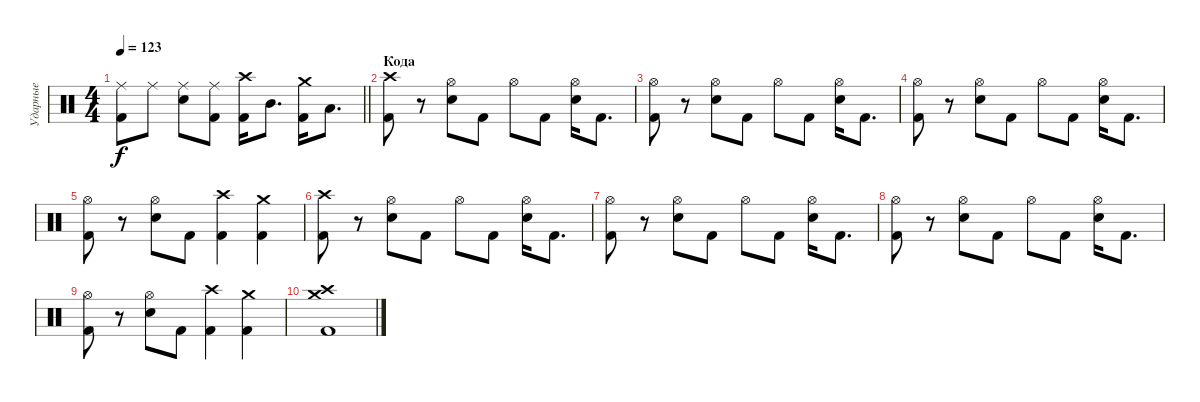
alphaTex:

\track ("Ударные" "Ударные") {instrument percussion}
\staff {score}
\articulation defaults
\ts (4 4)
\tempo 123
\clef neutral
\barLineRight lightlight
\ks c
("Ride (middle)" "Kick (hit) 2").8{dy f} "Ride (middle)".8 ("Ride (middle)" "Electric Snare (hit)").8 ("Ride (middle)" "Kick (hit) 2").8 ("Kick (hit) 2" "Crash high (hit)").16 "Mid Tom (hit)".8{d} ("Kick (hit) 2" "Crash medium (hit)").16 "Low Tom (hit)".8{d} |
\section ("" "Кода")
("Crash high (hit)" "Kick (hit) 2").8 r.8 ("Hi-Hat (open)" "Electric Snare (hit)").8 "Kick (hit) 2".8 "Hi-Hat (open)".8 "Kick (hit) 2".8 ("Hi-Hat (open)" "Electric Snare (hit)").16 "Kick (hit) 2".8{d} |
("Hi-Hat (open)" "Kick (hit) 2").8 r.8 ("Hi-Hat (open)" "Electric Snare (hit)").8 "Kick (hit) 2".8 "Hi-Hat (open)".8 "Kick (hit) 2".8 ("Hi-Hat (open)" "Electric Snare (hit)").16 "Kick (hit) 2".8{d} |
("Hi-Hat (open)" "Kick (hit) 2").8 r.8 ("Hi-Hat (open)" "Electric Snare (hit)").8 "Kick (hit) 2".8 "Hi-Hat (open)".8 "Kick (hit) 2".8 ("Hi-Hat (open)" "Electric Snare (hit)").16 "Kick (hit) 2".8{d} |
("Hi-Hat (open)" "Kick (hit) 2").8 r.8 ("Hi-Hat (open)" "Electric Snare (hit)").8 "Kick (hit) 2".8 ("Kick (hit) 2" "Crash high (hit)").4 ("Kick (hit) 2" "Crash medium (hit)").4 |
("Crash high (hit)" "Kick (hit) 2").8 r.8 ("Hi-Hat (open)" "Electric Snare (hit)").8 "Kick (hit) 2".8 "Hi-Hat (open)".8 "Kick (hit) 2".8 ("Hi-Hat (open)" "Electric Snare (hit)").16 "Kick (hit) 2".8{d} |
("Hi-Hat (open)" "Kick (hit) 2").8 r.8 ("Hi-Hat (open)" "Electric Snare (hit)").8 "Kick (hit) 2".8 "Hi-Hat (open)".8 "Kick (hit) 2".8 ("Hi-Hat (open)" "Electric Snare (hit)").16 "Kick (hit) 2".8{d} |
("Hi-Hat (open)" "Kick (hit) 2").8 r.8 ("Hi-Hat (open)" "Electric Snare (hit)").8 "Kick (hit) 2".8 "Hi-Hat (open)".8 "Kick (hit) 2".8 ("Hi-Hat (open)" "Electric Snare (hit)").16 "Kick (hit) 2".8{d} |
("Hi-Hat (open)" "Kick (hit) 2").8 r.8 ("Hi-Hat (open)" "Electric Snare (hit)").8 "Kick (hit) 2".8 ("Kick (hit) 2" "Crash high (hit)").4 ("Kick (hit) 2" "Crash medium (hit)").4 |
("Crash high (hit)" "Kick (hit) 2" "Crash medium (hit)").1
